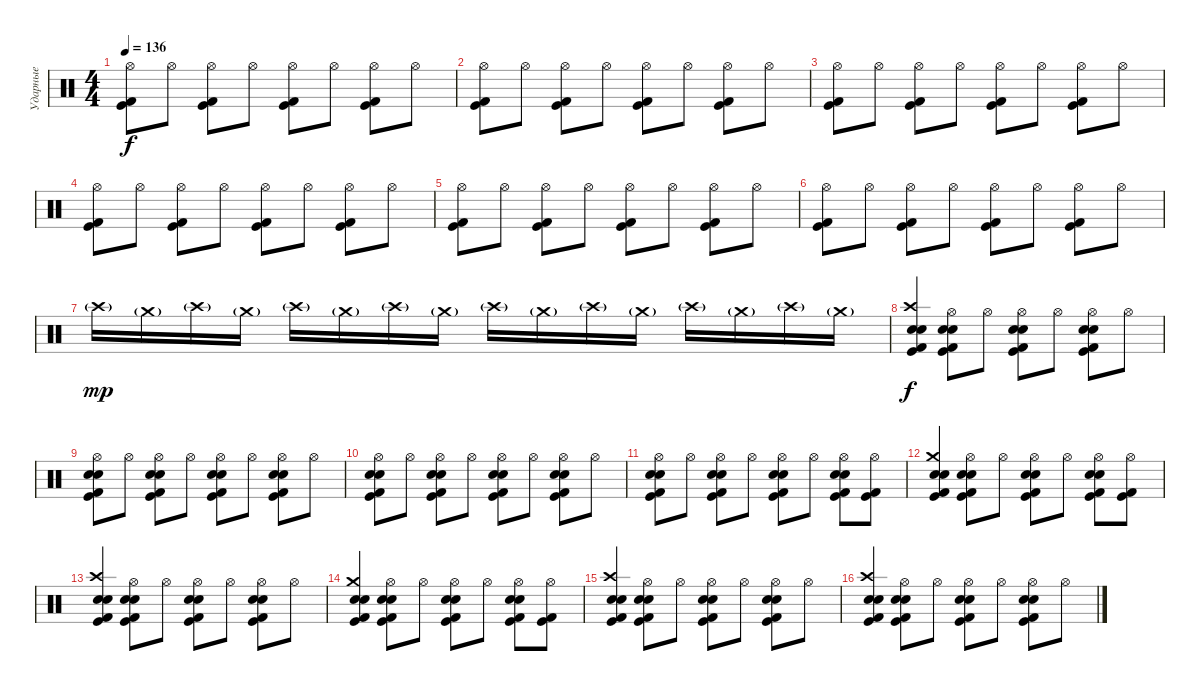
\track ("Ударные" "Ударные") {instrument percussion}
\staff {score}
\articulation defaults
\ts (4 4)
\tempo 136
\clef neutral
\ks c
("Hi-Hat (open)" "Kick (hit)" "Kick (hit) 2").8{dy f} "Hi-Hat (open)".8 ("Hi-Hat (open)" "Kick (hit)" "Kick (hit) 2").8 "Hi-Hat (open)".8 ("Hi-Hat (open)" "Kick (hit)" "Kick (hit) 2").8 "Hi-Hat (open)".8 ("Hi-Hat (open)" "Kick (hit)" "Kick (hit) 2").8 "Hi-Hat (open)".8 |
("Hi-Hat (open)" "Kick (hit)" "Kick (hit) 2").8 "Hi-Hat (open)".8 ("Hi-Hat (open)" "Kick (hit)" "Kick (hit) 2").8 "Hi-Hat (open)".8 ("Hi-Hat (open)" "Kick (hit)" "Kick (hit) 2").8 "Hi-Hat (open)".8 ("Hi-Hat (open)" "Kick (hit)" "Kick (hit) 2").8 "Hi-Hat (open)".8 |
("Hi-Hat (open)" "Kick (hit)" "Kick (hit) 2").8 "Hi-Hat (open)".8 ("Hi-Hat (open)" "Kick (hit)" "Kick (hit) 2").8 "Hi-Hat (open)".8 ("Hi-Hat (open)" "Kick (hit)" "Kick (hit) 2").8 "Hi-Hat (open)".8 ("Hi-Hat (open)" "Kick (hit)" "Kick (hit) 2").8 "Hi-Hat (open)".8 |
("Hi-Hat (open)" "Kick (hit)" "Kick (hit) 2").8 "Hi-Hat (open)".8 ("Hi-Hat (open)" "Kick (hit)" "Kick (hit) 2").8 "Hi-Hat (open)".8 ("Hi-Hat (open)" "Kick (hit)" "Kick (hit) 2").8 "Hi-Hat (open)".8 ("Hi-Hat (open)" "Kick (hit)" "Kick (hit) 2").8 "Hi-Hat (open)".8 |
("Hi-Hat (open)" "Kick (hit)" "Kick (hit) 2").8 "Hi-Hat (open)".8 ("Hi-Hat (open)" "Kick (hit)" "Kick (hit) 2").8 "Hi-Hat (open)".8 ("Hi-Hat (open)" "Kick (hit)" "Kick (hit) 2").8 "Hi-Hat (open)".8 ("Hi-Hat (open)" "Kick (hit)" "Kick (hit) 2").8 "Hi-Hat (open)".8 |
("Hi-Hat (open)" "Kick (hit)" "Kick (hit) 2").8 "Hi-Hat (open)".8 ("Hi-Hat (open)" "Kick (hit)" "Kick (hit) 2").8 "Hi-Hat (open)".8 ("Hi-Hat (open)" "Kick (hit)" "Kick (hit) 2").8 "Hi-Hat (open)".8 ("Hi-Hat (open)" "Kick (hit)" "Kick (hit) 2").8 "Hi-Hat (open)".8 |
"Crash high (hit)"{g}.16{dy mp volume 5} "Crash medium (hit)"{g}.16{volume 16} "Crash high (hit)"{g}.16 "Crash medium (hit)"{g}.16 "Crash high (hit)"{g}.16 "Crash medium (hit)"{g}.16 "Crash high (hit)"{g}.16 "Crash medium (hit)"{g}.16 "Crash high (hit)"{g}.16 "Crash medium (hit)"{g}.16 "Crash high (hit)"{g}.16 "Crash medium (hit)"{g}.16 "Crash high (hit)"{g}.16 "Crash medium (hit)"{g}.16 "Crash high (hit)"{g}.16 "Crash medium (hit)"{g}.16 |
("Crash high (hit)" "Snare (hit) 2" "Kick (hit) 2" "Kick (hit)" "Electric Snare (hit)").4{dy f} ("Hi-Hat (open)" "Snare (hit) 2" "Kick (hit) 2" "Kick (hit)" "Electric Snare (hit)").8 "Hi-Hat (open)".8 ("Hi-Hat (open)" "Snare (hit) 2" "Kick (hit) 2" "Kick (hit)" "Electric Snare (hit)").8 "Hi-Hat (open)".8 ("Hi-Hat (open)" "Snare (hit) 2" "Kick (hit) 2" "Kick (hit)" "Electric Snare (hit)").8 "Hi-Hat (open)".8 |
("Hi-Hat (open)" "Snare (hit) 2" "Kick (hit) 2" "Kick (hit)" "Electric Snare (hit)").8 "Hi-Hat (open)".8 ("Hi-Hat (open)" "Snare (hit) 2" "Kick (hit) 2" "Kick (hit)" "Electric Snare (hit)").8 "Hi-Hat (open)".8 ("Hi-Hat (open)" "Snare (hit) 2" "Kick (hit) 2" "Kick (hit)" "Electric Snare (hit)").8 "Hi-Hat (open)".8 ("Hi-Hat (open)" "Snare (hit) 2" "Kick (hit) 2" "Kick (hit)" "Electric Snare (hit)").8 "Hi-Hat (open)".8 |
("Hi-Hat (open)" "Snare (hit) 2" "Kick (hit) 2" "Kick (hit)" "Electric Snare (hit)").8 "Hi-Hat (open)".8 ("Hi-Hat (open)" "Snare (hit) 2" "Kick (hit) 2" "Kick (hit)" "Electric Snare (hit)").8 "Hi-Hat (open)".8 ("Hi-Hat (open)" "Snare (hit) 2" "Kick (hit) 2" "Kick (hit)" "Electric Snare (hit)").8 "Hi-Hat (open)".8 ("Hi-Hat (open)" "Snare (hit) 2" "Kick (hit) 2" "Kick (hit)" "Electric Snare (hit)").8 "Hi-Hat (open)".8 |
("Hi-Hat (open)" "Snare (hit) 2" "Kick (hit) 2" "Kick (hit)" "Electric Snare (hit)").8 "Hi-Hat (open)".8 ("Hi-Hat (open)" "Snare (hit) 2" "Kick (hit) 2" "Kick (hit)" "Electric Snare (hit)").8 "Hi-Hat (open)".8 ("Hi-Hat (open)" "Snare (hit) 2" "Kick (hit) 2" "Kick (hit)" "Electric Snare (hit)").8 "Hi-Hat (open)".8 ("Hi-Hat (open)" "Snare (hit) 2" "Kick (hit) 2" "Kick (hit)" "Electric Snare (hit)").8 ("Hi-Hat (open)" "Kick (hit)" "Kick (hit) 2").8 |
("Crash medium (hit)" "Snare (hit) 2" "Kick (hit) 2" "Kick (hit)" "Electric Snare (hit)").4 ("Hi-Hat (open)" "Snare (hit) 2" "Kick (hit) 2" "Kick (hit)" "Electric Snare (hit)").8 "Hi-Hat (open)".8 ("Hi-Hat (open)" "Snare (hit) 2" "Kick (hit) 2" "Kick (hit)" "Electric Snare (hit)").8 "Hi-Hat (open)".8 ("Hi-Hat (open)" "Snare (hit) 2" "Kick (hit) 2" "Kick (hit)" "Electric Snare (hit)").8 ("Hi-Hat (open)" "Kick (hit)" "Kick (hit) 2").8 |
("Crash high (hit)" "Snare (hit) 2" "Kick (hit) 2" "Kick (hit)" "Electric Snare (hit)").4 ("Hi-Hat (open)" "Snare (hit) 2" "Kick (hit) 2" "Kick (hit)" "Electric Snare (hit)").8 "Hi-Hat (open)".8 ("Hi-Hat (open)" "Snare (hit) 2" "Kick (hit) 2" "Kick (hit)" "Electric Snare (hit)").8 "Hi-Hat (open)".8 ("Hi-Hat (open)" "Snare (hit) 2" "Kick (hit) 2" "Kick (hit)" "Electric Snare (hit)").8 "Hi-Hat (open)".8 |
("Crash medium (hit)" "Snare (hit) 2" "Kick (hit) 2" "Kick (hit)" "Electric Snare (hit)").4 ("Hi-Hat (open)" "Snare (hit) 2" "Kick (hit) 2" "Kick (hit)" "Electric Snare (hit)").8 "Hi-Hat (open)".8 ("Hi-Hat (open)" "Snare (hit) 2" "Kick (hit) 2" "Kick (hit)" "Electric Snare (hit)").8 "Hi-Hat (open)".8 ("Hi-Hat (open)" "Snare (hit) 2" "Kick (hit) 2" "Kick (hit)" "Electric Snare (hit)").8 ("Hi-Hat (open)" "Kick (hit)" "Kick (hit) 2").8 |
("Crash high (hit)" "Snare (hit) 2" "Kick (hit) 2" "Kick (hit)" "Electric Snare (hit)").4 ("Hi-Hat (open)" "Snare (hit) 2" "Kick (hit) 2" "Kick (hit)" "Electric Snare (hit)").8 "Hi-Hat (open)".8 ("Hi-Hat (open)" "Snare (hit) 2" "Kick (hit) 2" "Kick (hit)" "Electric Snare (hit)").8 "Hi-Hat (open)".8 ("Hi-Hat (open)" "Snare (hit) 2" "Kick (hit) 2" "Kick (hit)" "Electric Snare (hit)").8 "Hi-Hat (open)".8 |
("Crash high (hit)" "Snare (hit) 2" "Kick (hit) 2" "Kick (hit)" "Electric Snare (hit)").4 ("Hi-Hat (open)" "Snare (hit) 2" "Kick (hit) 2" "Kick (hit)" "Electric Snare (hit)").8 "Hi-Hat (open)".8 ("Hi-Hat (open)" "Snare (hit) 2" "Kick (hit) 2" "Kick (hit)" "Electric Snare (hit)").8 "Hi-Hat (open)".8 ("Hi-Hat (open)" "Snare (hit) 2" "Kick (hit) 2" "Kick (hit)" "Electric Snare (hit)").8 "Hi-Hat (open)".8
